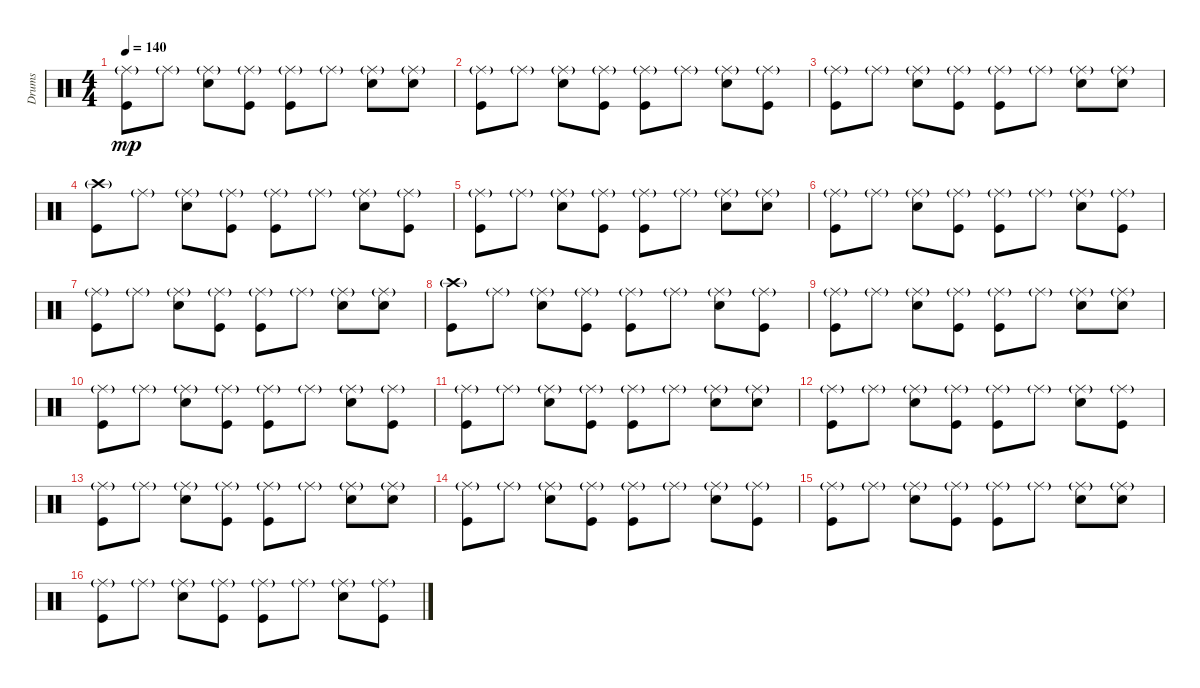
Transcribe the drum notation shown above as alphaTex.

\track ("Drums" "Drums") {instrument percussion}
\staff {score}
\articulation defaults
\ts (4 4)
\tempo 140
\clef neutral
\ks c
("Ride (middle)"{g} "Kick (hit)").8{dy mp} "Ride (middle)"{g}.8 ("Ride (middle)"{g} "Electric Snare (hit)").8 ("Ride (middle)"{g} "Kick (hit)").8 ("Ride (middle)"{g} "Kick (hit)").8 "Ride (middle)"{g}.8 ("Ride (middle)"{g} "Electric Snare (hit)").8 ("Ride (middle)"{g} "Electric Snare (hit)").8 |
("Ride (middle)"{g} "Kick (hit)").8 "Ride (middle)"{g}.8 ("Ride (middle)"{g} "Electric Snare (hit)").8 ("Ride (middle)"{g} "Kick (hit)").8 ("Ride (middle)"{g} "Kick (hit)").8 "Ride (middle)"{g}.8 ("Ride (middle)"{g} "Electric Snare (hit)").8 ("Ride (middle)"{g} "Kick (hit)").8 |
("Ride (middle)"{g} "Kick (hit)").8 "Ride (middle)"{g}.8 ("Ride (middle)"{g} "Electric Snare (hit)").8 ("Ride (middle)"{g} "Kick (hit)").8 ("Ride (middle)"{g} "Kick (hit)").8 "Ride (middle)"{g}.8 ("Ride (middle)"{g} "Electric Snare (hit)").8 ("Ride (middle)"{g} "Electric Snare (hit)").8 |
("Crash high (hit)"{g} "Kick (hit)").8 "Ride (middle)"{g}.8 ("Ride (middle)"{g} "Electric Snare (hit)").8 ("Ride (middle)"{g} "Kick (hit)").8 ("Ride (middle)"{g} "Kick (hit)").8 "Ride (middle)"{g}.8 ("Ride (middle)"{g} "Electric Snare (hit)").8 ("Ride (middle)"{g} "Kick (hit)").8 |
("Ride (middle)"{g} "Kick (hit)").8 "Ride (middle)"{g}.8 ("Ride (middle)"{g} "Electric Snare (hit)").8 ("Ride (middle)"{g} "Kick (hit)").8 ("Ride (middle)"{g} "Kick (hit)").8 "Ride (middle)"{g}.8 ("Ride (middle)"{g} "Electric Snare (hit)").8 ("Ride (middle)"{g} "Electric Snare (hit)").8 |
("Ride (middle)"{g} "Kick (hit)").8 "Ride (middle)"{g}.8 ("Ride (middle)"{g} "Electric Snare (hit)").8 ("Ride (middle)"{g} "Kick (hit)").8 ("Ride (middle)"{g} "Kick (hit)").8 "Ride (middle)"{g}.8 ("Ride (middle)"{g} "Electric Snare (hit)").8 ("Ride (middle)"{g} "Kick (hit)").8 |
("Ride (middle)"{g} "Kick (hit)").8 "Ride (middle)"{g}.8 ("Ride (middle)"{g} "Electric Snare (hit)").8 ("Ride (middle)"{g} "Kick (hit)").8 ("Ride (middle)"{g} "Kick (hit)").8 "Ride (middle)"{g}.8 ("Ride (middle)"{g} "Electric Snare (hit)").8 ("Ride (middle)"{g} "Electric Snare (hit)").8 |
("Crash high (hit)"{g} "Kick (hit)").8 "Ride (middle)"{g}.8 ("Ride (middle)"{g} "Electric Snare (hit)").8 ("Ride (middle)"{g} "Kick (hit)").8 ("Ride (middle)"{g} "Kick (hit)").8 "Ride (middle)"{g}.8 ("Ride (middle)"{g} "Electric Snare (hit)").8 ("Ride (middle)"{g} "Kick (hit)").8 |
("Ride (middle)"{g} "Kick (hit)").8 "Ride (middle)"{g}.8 ("Ride (middle)"{g} "Electric Snare (hit)").8 ("Ride (middle)"{g} "Kick (hit)").8 ("Ride (middle)"{g} "Kick (hit)").8 "Ride (middle)"{g}.8 ("Ride (middle)"{g} "Electric Snare (hit)").8 ("Ride (middle)"{g} "Electric Snare (hit)").8 |
("Ride (middle)"{g} "Kick (hit)").8 "Ride (middle)"{g}.8 ("Ride (middle)"{g} "Electric Snare (hit)").8 ("Ride (middle)"{g} "Kick (hit)").8 ("Ride (middle)"{g} "Kick (hit)").8 "Ride (middle)"{g}.8 ("Ride (middle)"{g} "Electric Snare (hit)").8 ("Ride (middle)"{g} "Kick (hit)").8 |
("Ride (middle)"{g} "Kick (hit)").8 "Ride (middle)"{g}.8 ("Ride (middle)"{g} "Electric Snare (hit)").8 ("Ride (middle)"{g} "Kick (hit)").8 ("Ride (middle)"{g} "Kick (hit)").8 "Ride (middle)"{g}.8 ("Ride (middle)"{g} "Electric Snare (hit)").8 ("Ride (middle)"{g} "Electric Snare (hit)").8 |
("Ride (middle)"{g} "Kick (hit)").8 "Ride (middle)"{g}.8 ("Ride (middle)"{g} "Electric Snare (hit)").8 ("Ride (middle)"{g} "Kick (hit)").8 ("Ride (middle)"{g} "Kick (hit)").8 "Ride (middle)"{g}.8 ("Ride (middle)"{g} "Electric Snare (hit)").8 ("Ride (middle)"{g} "Kick (hit)").8 |
("Ride (middle)"{g} "Kick (hit)").8 "Ride (middle)"{g}.8 ("Ride (middle)"{g} "Electric Snare (hit)").8 ("Ride (middle)"{g} "Kick (hit)").8 ("Ride (middle)"{g} "Kick (hit)").8 "Ride (middle)"{g}.8 ("Ride (middle)"{g} "Electric Snare (hit)").8 ("Ride (middle)"{g} "Electric Snare (hit)").8 |
("Ride (middle)"{g} "Kick (hit)").8 "Ride (middle)"{g}.8 ("Ride (middle)"{g} "Electric Snare (hit)").8 ("Ride (middle)"{g} "Kick (hit)").8 ("Ride (middle)"{g} "Kick (hit)").8 "Ride (middle)"{g}.8 ("Ride (middle)"{g} "Electric Snare (hit)").8 ("Ride (middle)"{g} "Kick (hit)").8 |
("Ride (middle)"{g} "Kick (hit)").8 "Ride (middle)"{g}.8 ("Ride (middle)"{g} "Electric Snare (hit)").8 ("Ride (middle)"{g} "Kick (hit)").8 ("Ride (middle)"{g} "Kick (hit)").8 "Ride (middle)"{g}.8 ("Ride (middle)"{g} "Electric Snare (hit)").8 ("Ride (middle)"{g} "Electric Snare (hit)").8 |
("Ride (middle)"{g} "Kick (hit)").8 "Ride (middle)"{g}.8 ("Ride (middle)"{g} "Electric Snare (hit)").8 ("Ride (middle)"{g} "Kick (hit)").8 ("Ride (middle)"{g} "Kick (hit)").8 "Ride (middle)"{g}.8 ("Ride (middle)"{g} "Electric Snare (hit)").8 ("Ride (middle)"{g} "Kick (hit)").8
